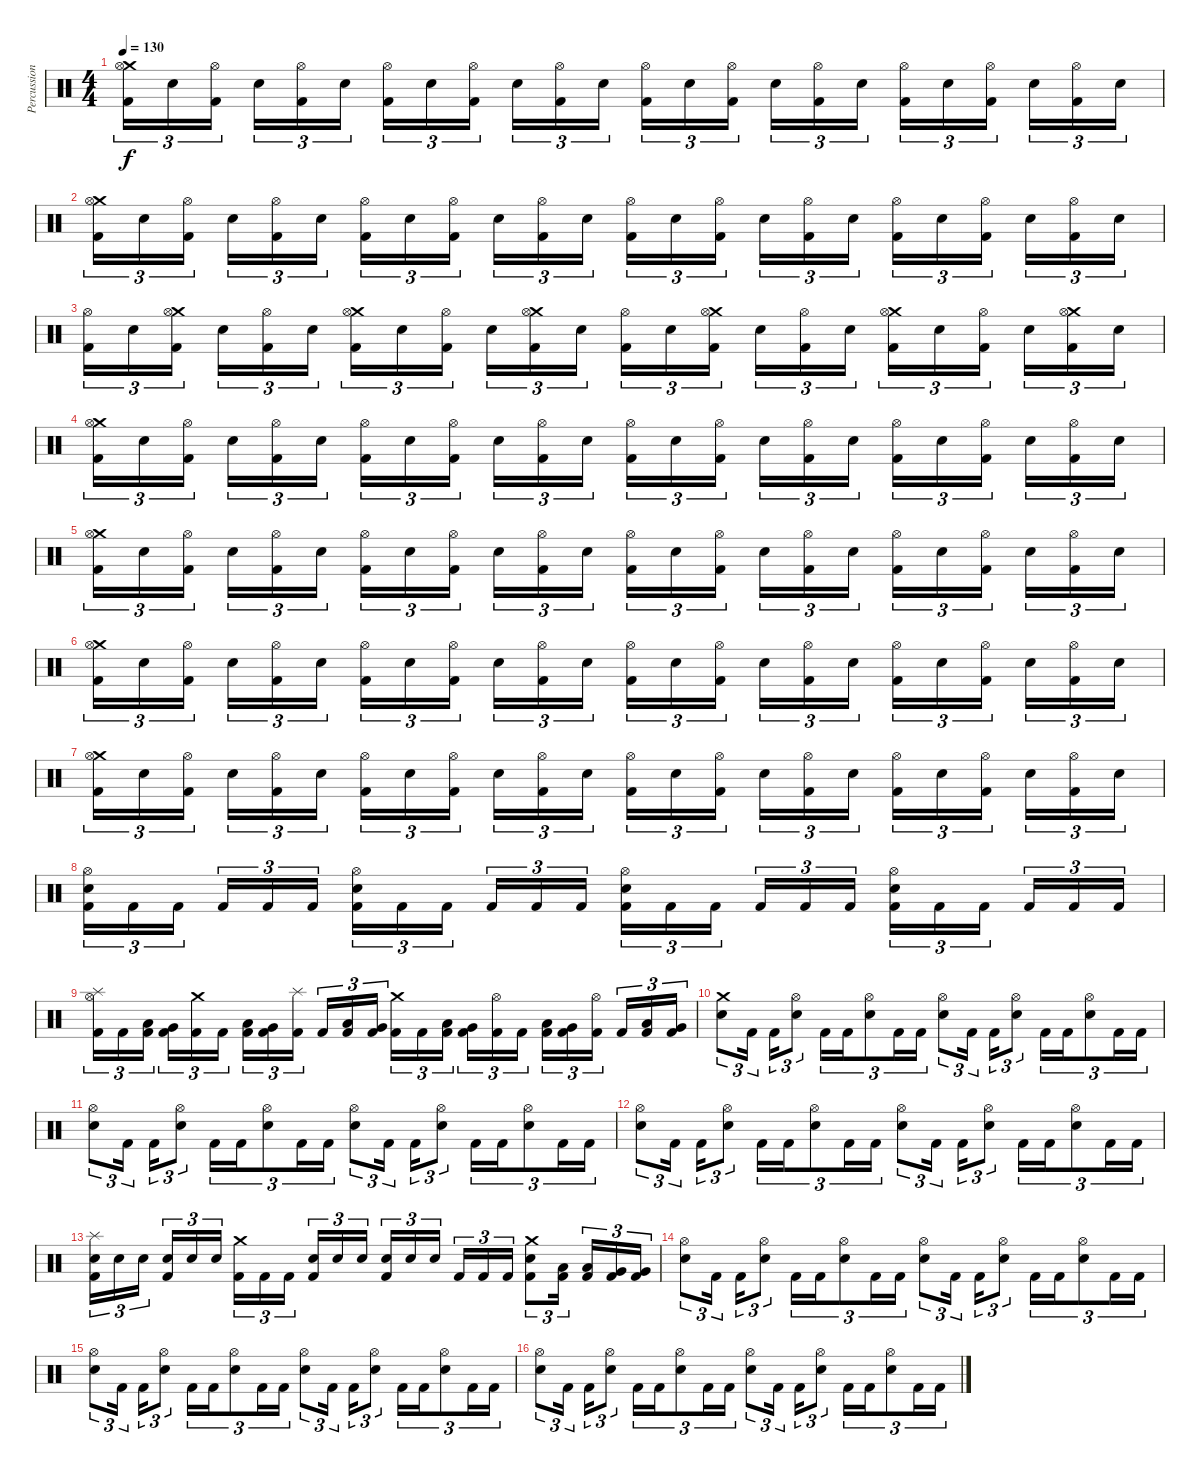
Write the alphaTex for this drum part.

\track ("Percussion" "Percussion") {instrument percussion}
\staff {score}
\articulation defaults
\ts (4 4)
\tempo 130
\clef neutral
\ks c
("Crash medium (hit)" "Hi-Hat (open)" "Kick (hit) 2").16{tu (3 2) dy f} "Snare (hit) 2".16{tu (3 2)} ("Hi-Hat (open)" "Kick (hit) 2").16{tu (3 2)} "Snare (hit) 2".16{tu (3 2)} ("Hi-Hat (open)" "Kick (hit) 2").16{tu (3 2)} "Snare (hit) 2".16{tu (3 2)} ("Hi-Hat (open)" "Kick (hit) 2").16{tu (3 2)} "Snare (hit) 2".16{tu (3 2)} ("Hi-Hat (open)" "Kick (hit) 2").16{tu (3 2)} "Snare (hit) 2".16{tu (3 2)} ("Hi-Hat (open)" "Kick (hit) 2").16{tu (3 2)} "Snare (hit) 2".16{tu (3 2)} ("Hi-Hat (open)" "Kick (hit) 2").16{tu (3 2)} "Snare (hit) 2".16{tu (3 2)} ("Hi-Hat (open)" "Kick (hit) 2").16{tu (3 2)} "Snare (hit) 2".16{tu (3 2)} ("Hi-Hat (open)" "Kick (hit) 2").16{tu (3 2)} "Snare (hit) 2".16{tu (3 2)} ("Hi-Hat (open)" "Kick (hit) 2").16{tu (3 2)} "Snare (hit) 2".16{tu (3 2)} ("Hi-Hat (open)" "Kick (hit) 2").16{tu (3 2)} "Snare (hit) 2".16{tu (3 2)} ("Hi-Hat (open)" "Kick (hit) 2").16{tu (3 2)} "Snare (hit) 2".16{tu (3 2)} |
("Crash medium (hit)" "Hi-Hat (open)" "Kick (hit) 2").16{tu (3 2)} "Snare (hit) 2".16{tu (3 2)} ("Hi-Hat (open)" "Kick (hit) 2").16{tu (3 2)} "Snare (hit) 2".16{tu (3 2)} ("Hi-Hat (open)" "Kick (hit) 2").16{tu (3 2)} "Snare (hit) 2".16{tu (3 2)} ("Hi-Hat (open)" "Kick (hit) 2").16{tu (3 2)} "Snare (hit) 2".16{tu (3 2)} ("Hi-Hat (open)" "Kick (hit) 2").16{tu (3 2)} "Snare (hit) 2".16{tu (3 2)} ("Hi-Hat (open)" "Kick (hit) 2").16{tu (3 2)} "Snare (hit) 2".16{tu (3 2)} ("Hi-Hat (open)" "Kick (hit) 2").16{tu (3 2)} "Snare (hit) 2".16{tu (3 2)} ("Hi-Hat (open)" "Kick (hit) 2").16{tu (3 2)} "Snare (hit) 2".16{tu (3 2)} ("Hi-Hat (open)" "Kick (hit) 2").16{tu (3 2)} "Snare (hit) 2".16{tu (3 2)} ("Hi-Hat (open)" "Kick (hit) 2").16{tu (3 2)} "Snare (hit) 2".16{tu (3 2)} ("Hi-Hat (open)" "Kick (hit) 2").16{tu (3 2)} "Snare (hit) 2".16{tu (3 2)} ("Hi-Hat (open)" "Kick (hit) 2").16{tu (3 2)} "Snare (hit) 2".16{tu (3 2)} |
("Hi-Hat (open)" "Kick (hit) 2").16{tu (3 2)} "Snare (hit) 2".16{tu (3 2)} ("Crash medium (hit)" "Hi-Hat (open)" "Kick (hit) 2").16{tu (3 2)} "Snare (hit) 2".16{tu (3 2)} ("Hi-Hat (open)" "Kick (hit) 2").16{tu (3 2)} "Snare (hit) 2".16{tu (3 2)} ("Crash medium (hit)" "Hi-Hat (open)" "Kick (hit) 2").16{tu (3 2)} "Snare (hit) 2".16{tu (3 2)} ("Hi-Hat (open)" "Kick (hit) 2").16{tu (3 2)} "Snare (hit) 2".16{tu (3 2)} ("Crash medium (hit)" "Hi-Hat (open)" "Kick (hit) 2").16{tu (3 2)} "Snare (hit) 2".16{tu (3 2)} ("Hi-Hat (open)" "Kick (hit) 2").16{tu (3 2)} "Snare (hit) 2".16{tu (3 2)} ("Crash medium (hit)" "Hi-Hat (open)" "Kick (hit) 2").16{tu (3 2)} "Snare (hit) 2".16{tu (3 2)} ("Hi-Hat (open)" "Kick (hit) 2").16{tu (3 2)} "Snare (hit) 2".16{tu (3 2)} ("Crash medium (hit)" "Hi-Hat (open)" "Kick (hit) 2").16{tu (3 2)} "Snare (hit) 2".16{tu (3 2)} ("Hi-Hat (open)" "Kick (hit) 2").16{tu (3 2)} "Snare (hit) 2".16{tu (3 2)} ("Crash medium (hit)" "Hi-Hat (open)" "Kick (hit) 2").16{tu (3 2)} "Snare (hit) 2".16{tu (3 2)} |
("Crash medium (hit)" "Hi-Hat (open)" "Kick (hit) 2").16{tu (3 2)} "Snare (hit) 2".16{tu (3 2)} ("Hi-Hat (open)" "Kick (hit) 2").16{tu (3 2)} "Snare (hit) 2".16{tu (3 2)} ("Hi-Hat (open)" "Kick (hit) 2").16{tu (3 2)} "Snare (hit) 2".16{tu (3 2)} ("Hi-Hat (open)" "Kick (hit) 2").16{tu (3 2)} "Snare (hit) 2".16{tu (3 2)} ("Hi-Hat (open)" "Kick (hit) 2").16{tu (3 2)} "Snare (hit) 2".16{tu (3 2)} ("Hi-Hat (open)" "Kick (hit) 2").16{tu (3 2)} "Snare (hit) 2".16{tu (3 2)} ("Hi-Hat (open)" "Kick (hit) 2").16{tu (3 2)} "Snare (hit) 2".16{tu (3 2)} ("Hi-Hat (open)" "Kick (hit) 2").16{tu (3 2)} "Snare (hit) 2".16{tu (3 2)} ("Hi-Hat (open)" "Kick (hit) 2").16{tu (3 2)} "Snare (hit) 2".16{tu (3 2)} ("Hi-Hat (open)" "Kick (hit) 2").16{tu (3 2)} "Snare (hit) 2".16{tu (3 2)} ("Hi-Hat (open)" "Kick (hit) 2").16{tu (3 2)} "Snare (hit) 2".16{tu (3 2)} ("Hi-Hat (open)" "Kick (hit) 2").16{tu (3 2)} "Snare (hit) 2".16{tu (3 2)} |
("Crash medium (hit)" "Hi-Hat (open)" "Kick (hit) 2").16{tu (3 2)} "Snare (hit) 2".16{tu (3 2)} ("Hi-Hat (open)" "Kick (hit) 2").16{tu (3 2)} "Snare (hit) 2".16{tu (3 2)} ("Hi-Hat (open)" "Kick (hit) 2").16{tu (3 2)} "Snare (hit) 2".16{tu (3 2)} ("Hi-Hat (open)" "Kick (hit) 2").16{tu (3 2)} "Snare (hit) 2".16{tu (3 2)} ("Hi-Hat (open)" "Kick (hit) 2").16{tu (3 2)} "Snare (hit) 2".16{tu (3 2)} ("Hi-Hat (open)" "Kick (hit) 2").16{tu (3 2)} "Snare (hit) 2".16{tu (3 2)} ("Hi-Hat (open)" "Kick (hit) 2").16{tu (3 2)} "Snare (hit) 2".16{tu (3 2)} ("Hi-Hat (open)" "Kick (hit) 2").16{tu (3 2)} "Snare (hit) 2".16{tu (3 2)} ("Hi-Hat (open)" "Kick (hit) 2").16{tu (3 2)} "Snare (hit) 2".16{tu (3 2)} ("Hi-Hat (open)" "Kick (hit) 2").16{tu (3 2)} "Snare (hit) 2".16{tu (3 2)} ("Hi-Hat (open)" "Kick (hit) 2").16{tu (3 2)} "Snare (hit) 2".16{tu (3 2)} ("Hi-Hat (open)" "Kick (hit) 2").16{tu (3 2)} "Snare (hit) 2".16{tu (3 2)} |
("Crash medium (hit)" "Hi-Hat (open)" "Kick (hit) 2").16{tu (3 2)} "Snare (hit) 2".16{tu (3 2)} ("Hi-Hat (open)" "Kick (hit) 2").16{tu (3 2)} "Snare (hit) 2".16{tu (3 2)} ("Hi-Hat (open)" "Kick (hit) 2").16{tu (3 2)} "Snare (hit) 2".16{tu (3 2)} ("Hi-Hat (open)" "Kick (hit) 2").16{tu (3 2)} "Snare (hit) 2".16{tu (3 2)} ("Hi-Hat (open)" "Kick (hit) 2").16{tu (3 2)} "Snare (hit) 2".16{tu (3 2)} ("Hi-Hat (open)" "Kick (hit) 2").16{tu (3 2)} "Snare (hit) 2".16{tu (3 2)} ("Hi-Hat (open)" "Kick (hit) 2").16{tu (3 2)} "Snare (hit) 2".16{tu (3 2)} ("Hi-Hat (open)" "Kick (hit) 2").16{tu (3 2)} "Snare (hit) 2".16{tu (3 2)} ("Hi-Hat (open)" "Kick (hit) 2").16{tu (3 2)} "Snare (hit) 2".16{tu (3 2)} ("Hi-Hat (open)" "Kick (hit) 2").16{tu (3 2)} "Snare (hit) 2".16{tu (3 2)} ("Hi-Hat (open)" "Kick (hit) 2").16{tu (3 2)} "Snare (hit) 2".16{tu (3 2)} ("Hi-Hat (open)" "Kick (hit) 2").16{tu (3 2)} "Snare (hit) 2".16{tu (3 2)} |
("Crash medium (hit)" "Hi-Hat (open)" "Kick (hit) 2").16{tu (3 2)} "Snare (hit) 2".16{tu (3 2)} ("Hi-Hat (open)" "Kick (hit) 2").16{tu (3 2)} "Snare (hit) 2".16{tu (3 2)} ("Hi-Hat (open)" "Kick (hit) 2").16{tu (3 2)} "Snare (hit) 2".16{tu (3 2)} ("Hi-Hat (open)" "Kick (hit) 2").16{tu (3 2)} "Snare (hit) 2".16{tu (3 2)} ("Hi-Hat (open)" "Kick (hit) 2").16{tu (3 2)} "Snare (hit) 2".16{tu (3 2)} ("Hi-Hat (open)" "Kick (hit) 2").16{tu (3 2)} "Snare (hit) 2".16{tu (3 2)} ("Hi-Hat (open)" "Kick (hit) 2").16{tu (3 2)} "Snare (hit) 2".16{tu (3 2)} ("Hi-Hat (open)" "Kick (hit) 2").16{tu (3 2)} "Snare (hit) 2".16{tu (3 2)} ("Hi-Hat (open)" "Kick (hit) 2").16{tu (3 2)} "Snare (hit) 2".16{tu (3 2)} ("Hi-Hat (open)" "Kick (hit) 2").16{tu (3 2)} "Snare (hit) 2".16{tu (3 2)} ("Hi-Hat (open)" "Kick (hit) 2").16{tu (3 2)} "Snare (hit) 2".16{tu (3 2)} ("Hi-Hat (open)" "Kick (hit) 2").16{tu (3 2)} "Snare (hit) 2".16{tu (3 2)} |
("Hi-Hat (open)" "Snare (hit) 2" "Kick (hit) 2").16{tu (3 2)} "Kick (hit) 2".16{tu (3 2)} "Kick (hit) 2".16{tu (3 2)} "Kick (hit) 2".16{tu (3 2)} "Kick (hit) 2".16{tu (3 2)} "Kick (hit) 2".16{tu (3 2)} ("Hi-Hat (open)" "Snare (hit) 2" "Kick (hit) 2").16{tu (3 2)} "Kick (hit) 2".16{tu (3 2)} "Kick (hit) 2".16{tu (3 2)} "Kick (hit) 2".16{tu (3 2)} "Kick (hit) 2".16{tu (3 2)} "Kick (hit) 2".16{tu (3 2)} ("Hi-Hat (open)" "Snare (hit) 2" "Kick (hit) 2").16{tu (3 2)} "Kick (hit) 2".16{tu (3 2)} "Kick (hit) 2".16{tu (3 2)} "Kick (hit) 2".16{tu (3 2)} "Kick (hit) 2".16{tu (3 2)} "Kick (hit) 2".16{tu (3 2)} ("Hi-Hat (open)" "Snare (hit) 2" "Kick (hit) 2").16{tu (3 2)} "Kick (hit) 2".16{tu (3 2)} "Kick (hit) 2".16{tu (3 2)} "Kick (hit) 2".16{tu (3 2)} "Kick (hit) 2".16{tu (3 2)} "Kick (hit) 2".16{tu (3 2)} |
("Splash (hit)" "Hi-Hat (open)" "Kick (hit) 2").16{tu (3 2)} "Kick (hit) 2".16{tu (3 2)} ("Low Tom (hit)" "Kick (hit) 2").16{tu (3 2)} ("Very Low Tom (hit)" "Kick (hit) 2").16{tu (3 2)} ("Crash medium (hit)" "Kick (hit) 2").16{tu (3 2)} "Kick (hit) 2".16{tu (3 2)} ("Low Tom (hit)" "Kick (hit) 2").16{tu (3 2)} ("Very Low Tom (hit)" "Kick (hit) 2").16{tu (3 2)} ("Splash (hit)" "Kick (hit) 2").16{tu (3 2)} "Kick (hit) 2".16{tu (3 2)} ("Low Tom (hit)" "Kick (hit) 2").16{tu (3 2)} ("Very Low Tom (hit)" "Kick (hit) 2").16{tu (3 2)} ("Crash medium (hit)" "Kick (hit) 2").16{tu (3 2)} "Kick (hit) 2".16{tu (3 2)} ("Low Tom (hit)" "Kick (hit) 2").16{tu (3 2)} ("Very Low Tom (hit)" "Kick (hit) 2").16{tu (3 2)} ("Hi-Hat (open)" "Kick (hit) 2").16{tu (3 2)} "Kick (hit) 2".16{tu (3 2)} ("Low Tom (hit)" "Kick (hit) 2").16{tu (3 2)} ("Very Low Tom (hit)" "Kick (hit) 2").16{tu (3 2)} ("Hi-Hat (open)" "Kick (hit) 2").16{tu (3 2)} "Kick (hit) 2".16{tu (3 2)} ("Low Tom (hit)" "Kick (hit) 2").16{tu (3 2)} ("Very Low Tom (hit)" "Kick (hit) 2").16{tu (3 2)} |
("Crash medium (hit)" "Snare (hit) 2").8{tu (3 2)} "Kick (hit) 2".16{tu (3 2)} "Kick (hit) 2".16{tu (3 2)} ("Hi-Hat (open)" "Snare (hit) 2").8{tu (3 2)} "Kick (hit) 2".16{tu (3 2)} "Kick (hit) 2".16{tu (3 2)} ("Hi-Hat (open)" "Snare (hit) 2").8{tu (3 2)} "Kick (hit) 2".16{tu (3 2)} "Kick (hit) 2".16{tu (3 2)} ("Hi-Hat (open)" "Snare (hit) 2").8{tu (3 2)} "Kick (hit) 2".16{tu (3 2)} "Kick (hit) 2".16{tu (3 2)} ("Hi-Hat (open)" "Snare (hit) 2").8{tu (3 2)} "Kick (hit) 2".16{tu (3 2)} "Kick (hit) 2".16{tu (3 2)} ("Hi-Hat (open)" "Snare (hit) 2").8{tu (3 2)} "Kick (hit) 2".16{tu (3 2)} "Kick (hit) 2".16{tu (3 2)} |
("Hi-Hat (open)" "Snare (hit) 2").8{tu (3 2)} "Kick (hit) 2".16{tu (3 2)} "Kick (hit) 2".16{tu (3 2)} ("Hi-Hat (open)" "Snare (hit) 2").8{tu (3 2)} "Kick (hit) 2".16{tu (3 2)} "Kick (hit) 2".16{tu (3 2)} ("Hi-Hat (open)" "Snare (hit) 2").8{tu (3 2)} "Kick (hit) 2".16{tu (3 2)} "Kick (hit) 2".16{tu (3 2)} ("Hi-Hat (open)" "Snare (hit) 2").8{tu (3 2)} "Kick (hit) 2".16{tu (3 2)} "Kick (hit) 2".16{tu (3 2)} ("Hi-Hat (open)" "Snare (hit) 2").8{tu (3 2)} "Kick (hit) 2".16{tu (3 2)} "Kick (hit) 2".16{tu (3 2)} ("Hi-Hat (open)" "Snare (hit) 2").8{tu (3 2)} "Kick (hit) 2".16{tu (3 2)} "Kick (hit) 2".16{tu (3 2)} |
("Hi-Hat (open)" "Snare (hit) 2").8{tu (3 2)} "Kick (hit) 2".16{tu (3 2)} "Kick (hit) 2".16{tu (3 2)} ("Hi-Hat (open)" "Snare (hit) 2").8{tu (3 2)} "Kick (hit) 2".16{tu (3 2)} "Kick (hit) 2".16{tu (3 2)} ("Hi-Hat (open)" "Snare (hit) 2").8{tu (3 2)} "Kick (hit) 2".16{tu (3 2)} "Kick (hit) 2".16{tu (3 2)} ("Hi-Hat (open)" "Snare (hit) 2").8{tu (3 2)} "Kick (hit) 2".16{tu (3 2)} "Kick (hit) 2".16{tu (3 2)} ("Hi-Hat (open)" "Snare (hit) 2").8{tu (3 2)} "Kick (hit) 2".16{tu (3 2)} "Kick (hit) 2".16{tu (3 2)} ("Hi-Hat (open)" "Snare (hit) 2").8{tu (3 2)} "Kick (hit) 2".16{tu (3 2)} "Kick (hit) 2".16{tu (3 2)} |
("Splash (hit)" "Snare (hit) 2" "Kick (hit) 2").16{tu (3 2)} "Snare (hit) 2".16{tu (3 2)} "Snare (hit) 2".16{tu (3 2)} ("Snare (hit) 2" "Kick (hit) 2").16{tu (3 2)} "Snare (hit) 2".16{tu (3 2)} "Snare (hit) 2".16{tu (3 2)} ("Crash medium (hit)" "Kick (hit) 2").16{tu (3 2)} "Kick (hit) 2".16{tu (3 2)} "Kick (hit) 2".16{tu (3 2)} ("Snare (hit) 2" "Kick (hit) 2").16{tu (3 2)} "Snare (hit) 2".16{tu (3 2)} "Snare (hit) 2".16{tu (3 2)} ("Snare (hit) 2" "Kick (hit) 2").16{tu (3 2)} "Snare (hit) 2".16{tu (3 2)} "Snare (hit) 2".16{tu (3 2)} "Kick (hit) 2".16{tu (3 2)} "Kick (hit) 2".16{tu (3 2)} "Kick (hit) 2".16{tu (3 2)} ("Crash medium (hit)" "Snare (hit) 2" "Kick (hit) 2").8{tu (3 2)} ("Low Tom (hit)" "Kick (hit) 2").16{tu (3 2)} ("Low Tom (hit)" "Kick (hit) 2").16{tu (3 2)} ("Very Low Tom (hit)" "Kick (hit) 2").16{tu (3 2)} ("Very Low Tom (hit)" "Kick (hit) 2").16{tu (3 2)} |
("Hi-Hat (open)" "Snare (hit) 2").8{tu (3 2)} "Kick (hit) 2".16{tu (3 2)} "Kick (hit) 2".16{tu (3 2)} ("Hi-Hat (open)" "Snare (hit) 2").8{tu (3 2)} "Kick (hit) 2".16{tu (3 2)} "Kick (hit) 2".16{tu (3 2)} ("Hi-Hat (open)" "Snare (hit) 2").8{tu (3 2)} "Kick (hit) 2".16{tu (3 2)} "Kick (hit) 2".16{tu (3 2)} ("Hi-Hat (open)" "Snare (hit) 2").8{tu (3 2)} "Kick (hit) 2".16{tu (3 2)} "Kick (hit) 2".16{tu (3 2)} ("Hi-Hat (open)" "Snare (hit) 2").8{tu (3 2)} "Kick (hit) 2".16{tu (3 2)} "Kick (hit) 2".16{tu (3 2)} ("Hi-Hat (open)" "Snare (hit) 2").8{tu (3 2)} "Kick (hit) 2".16{tu (3 2)} "Kick (hit) 2".16{tu (3 2)} |
("Hi-Hat (open)" "Snare (hit) 2").8{tu (3 2)} "Kick (hit) 2".16{tu (3 2)} "Kick (hit) 2".16{tu (3 2)} ("Hi-Hat (open)" "Snare (hit) 2").8{tu (3 2)} "Kick (hit) 2".16{tu (3 2)} "Kick (hit) 2".16{tu (3 2)} ("Hi-Hat (open)" "Snare (hit) 2").8{tu (3 2)} "Kick (hit) 2".16{tu (3 2)} "Kick (hit) 2".16{tu (3 2)} ("Hi-Hat (open)" "Snare (hit) 2").8{tu (3 2)} "Kick (hit) 2".16{tu (3 2)} "Kick (hit) 2".16{tu (3 2)} ("Hi-Hat (open)" "Snare (hit) 2").8{tu (3 2)} "Kick (hit) 2".16{tu (3 2)} "Kick (hit) 2".16{tu (3 2)} ("Hi-Hat (open)" "Snare (hit) 2").8{tu (3 2)} "Kick (hit) 2".16{tu (3 2)} "Kick (hit) 2".16{tu (3 2)} |
("Hi-Hat (open)" "Snare (hit) 2").8{tu (3 2)} "Kick (hit) 2".16{tu (3 2)} "Kick (hit) 2".16{tu (3 2)} ("Hi-Hat (open)" "Snare (hit) 2").8{tu (3 2)} "Kick (hit) 2".16{tu (3 2)} "Kick (hit) 2".16{tu (3 2)} ("Hi-Hat (open)" "Snare (hit) 2").8{tu (3 2)} "Kick (hit) 2".16{tu (3 2)} "Kick (hit) 2".16{tu (3 2)} ("Hi-Hat (open)" "Snare (hit) 2").8{tu (3 2)} "Kick (hit) 2".16{tu (3 2)} "Kick (hit) 2".16{tu (3 2)} ("Hi-Hat (open)" "Snare (hit) 2").8{tu (3 2)} "Kick (hit) 2".16{tu (3 2)} "Kick (hit) 2".16{tu (3 2)} ("Hi-Hat (open)" "Snare (hit) 2").8{tu (3 2)} "Kick (hit) 2".16{tu (3 2)} "Kick (hit) 2".16{tu (3 2)}
